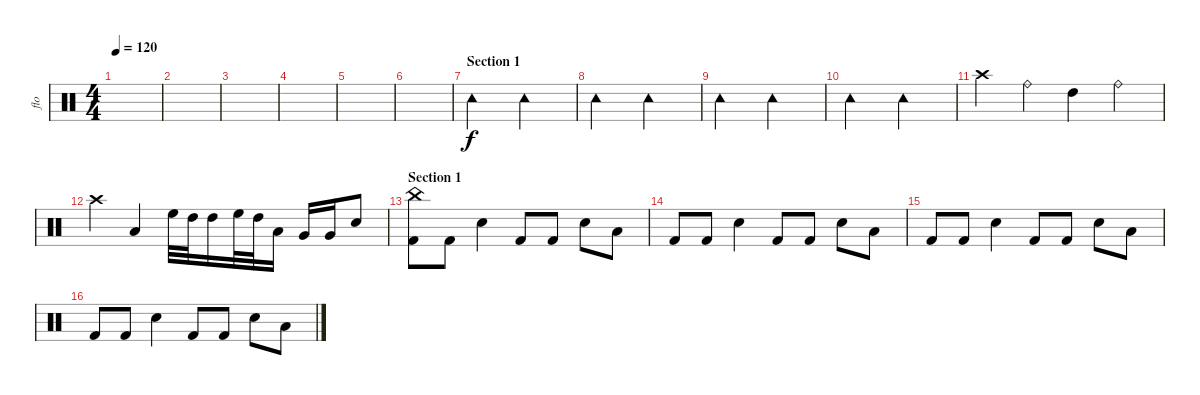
\track ("flo" "flo") {instrument percussion}
\staff {score}
\articulation defaults
\ts (4 4)
\tempo 120
\clef neutral
\ks c
|
|
|
|
|
|
\section ("" "Section 1")
"Tambourine (hit)".2 "Tambourine (hit)".2 |
"Tambourine (hit)".2 "Tambourine (hit)".2 |
"Tambourine (hit)".2 "Tambourine (hit)".2 |
"Tambourine (hit)".2 "Tambourine (hit)".2 |
"Crash high (hit)".4 "Ride (bell)".4 "High Tom (hit)".4 "Ride (bell)".4 |
"Crash high (hit)".4 "Low Tom (hit)".4 "High Floor Tom (hit)".32 "High Tom (hit)".32 "High Tom (hit)".16 "High Floor Tom (hit)".32 "High Tom (hit)".32 "Low Tom (hit)".16 "Very Low Tom (hit)".16 "Very Low Tom (hit)".16 "Snare (hit) 2".8 |
\section ("" "Section 1")
("China (hit)" "Kick (hit) 2").8 "Kick (hit) 2".8 "Snare (hit) 2".4 "Kick (hit) 2".8 "Kick (hit) 2".8 "Snare (hit) 2".8 "Low Floor Tom (hit)".8 |
"Kick (hit) 2".8 "Kick (hit) 2".8 "Snare (hit) 2".4 "Kick (hit) 2".8 "Kick (hit) 2".8 "Snare (hit) 2".8 "Low Floor Tom (hit)".8 |
"Kick (hit) 2".8 "Kick (hit) 2".8 "Snare (hit) 2".4 "Kick (hit) 2".8 "Kick (hit) 2".8 "Snare (hit) 2".8 "Low Floor Tom (hit)".8 |
"Kick (hit) 2".8 "Kick (hit) 2".8 "Snare (hit) 2".4 "Kick (hit) 2".8 "Kick (hit) 2".8 "Snare (hit) 2".8 "Low Floor Tom (hit)".8
